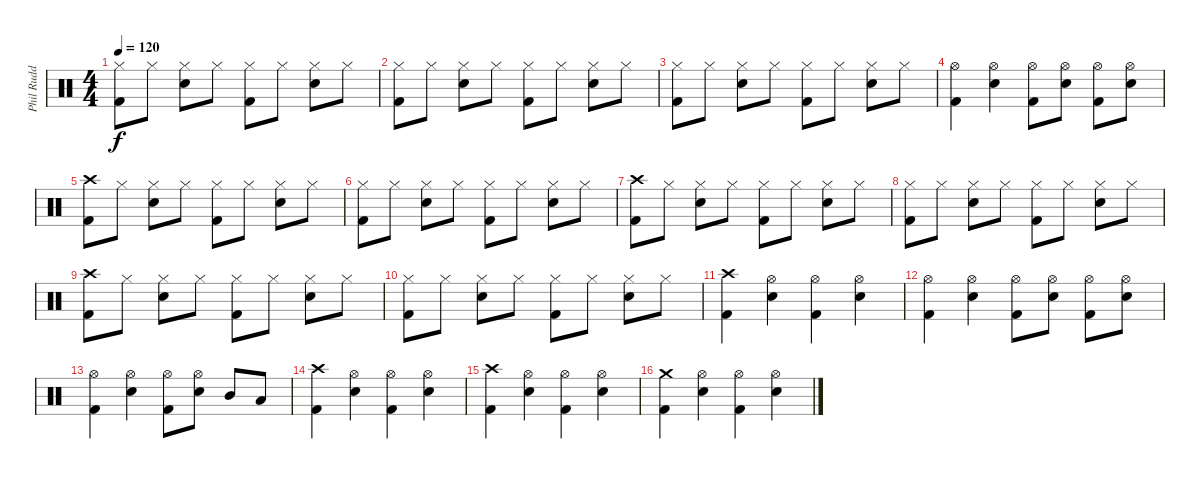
\track ("Phil Rudd (Drum)" "Phil Rudd ") {instrument percussion}
\staff {score}
\articulation defaults
\ts (4 4)
\tempo 120
\clef neutral
\ks c
("Hi-Hat (closed)" "Kick (hit) 2").8{dy f} "Hi-Hat (closed)".8 ("Hi-Hat (closed)" "Snare (hit) 2").8 "Hi-Hat (closed)".8 ("Hi-Hat (closed)" "Kick (hit) 2").8 "Hi-Hat (closed)".8 ("Hi-Hat (closed)" "Snare (hit) 2").8 "Hi-Hat (closed)".8 |
("Hi-Hat (closed)" "Kick (hit) 2").8 "Hi-Hat (closed)".8 ("Hi-Hat (closed)" "Snare (hit) 2").8 "Hi-Hat (closed)".8 ("Hi-Hat (closed)" "Kick (hit) 2").8 "Hi-Hat (closed)".8 ("Hi-Hat (closed)" "Snare (hit) 2").8 "Hi-Hat (closed)".8 |
("Hi-Hat (closed)" "Kick (hit) 2").8 "Hi-Hat (closed)".8 ("Hi-Hat (closed)" "Snare (hit) 2").8 "Hi-Hat (closed)".8 ("Hi-Hat (closed)" "Kick (hit) 2").8 "Hi-Hat (closed)".8 ("Hi-Hat (closed)" "Snare (hit) 2").8 "Hi-Hat (closed)".8 |
("Hi-Hat (open)" "Kick (hit) 2").4 ("Hi-Hat (open)" "Snare (hit) 2").4 ("Hi-Hat (open)" "Kick (hit) 2").8 ("Hi-Hat (open)" "Snare (hit) 2").8 ("Hi-Hat (open)" "Kick (hit) 2").8 ("Hi-Hat (open)" "Snare (hit) 2").8 |
("Crash high (hit)" "Kick (hit) 2").8 "Hi-Hat (closed)".8 ("Hi-Hat (closed)" "Snare (hit) 2").8 "Hi-Hat (closed)".8 ("Hi-Hat (closed)" "Kick (hit) 2").8 "Hi-Hat (closed)".8 ("Hi-Hat (closed)" "Snare (hit) 2").8 "Hi-Hat (closed)".8 |
("Hi-Hat (closed)" "Kick (hit) 2").8 "Hi-Hat (closed)".8 ("Hi-Hat (closed)" "Snare (hit) 2").8 "Hi-Hat (closed)".8 ("Hi-Hat (closed)" "Kick (hit) 2").8 "Hi-Hat (closed)".8 ("Hi-Hat (closed)" "Snare (hit) 2").8 "Hi-Hat (closed)".8 |
("Crash high (hit)" "Kick (hit) 2").8 "Hi-Hat (closed)".8 ("Hi-Hat (closed)" "Snare (hit) 2").8 "Hi-Hat (closed)".8 ("Hi-Hat (closed)" "Kick (hit) 2").8 "Hi-Hat (closed)".8 ("Hi-Hat (closed)" "Snare (hit) 2").8 "Hi-Hat (closed)".8 |
("Hi-Hat (closed)" "Kick (hit) 2").8 "Hi-Hat (closed)".8 ("Hi-Hat (closed)" "Snare (hit) 2").8 "Hi-Hat (closed)".8 ("Hi-Hat (closed)" "Kick (hit) 2").8 "Hi-Hat (closed)".8 ("Hi-Hat (closed)" "Snare (hit) 2").8 "Hi-Hat (closed)".8 |
("Crash high (hit)" "Kick (hit) 2").8 "Hi-Hat (closed)".8 ("Hi-Hat (closed)" "Snare (hit) 2").8 "Hi-Hat (closed)".8 ("Hi-Hat (closed)" "Kick (hit) 2").8 "Hi-Hat (closed)".8 ("Hi-Hat (closed)" "Snare (hit) 2").8 "Hi-Hat (closed)".8 |
("Hi-Hat (closed)" "Kick (hit) 2").8 "Hi-Hat (closed)".8 ("Hi-Hat (closed)" "Snare (hit) 2").8 "Hi-Hat (closed)".8 ("Hi-Hat (closed)" "Kick (hit) 2").8 "Hi-Hat (closed)".8 ("Hi-Hat (closed)" "Snare (hit) 2").8 "Hi-Hat (closed)".8 |
("Crash high (hit)" "Kick (hit) 2").4 ("Hi-Hat (open)" "Snare (hit) 2").4 ("Hi-Hat (open)" "Kick (hit) 2").4 ("Hi-Hat (open)" "Snare (hit) 2").4 |
("Hi-Hat (open)" "Kick (hit) 2").4 ("Hi-Hat (open)" "Snare (hit) 2").4 ("Hi-Hat (open)" "Kick (hit) 2").8 ("Hi-Hat (open)" "Snare (hit) 2").8 ("Hi-Hat (open)" "Kick (hit) 2").8 ("Hi-Hat (open)" "Snare (hit) 2").8 |
("Hi-Hat (open)" "Kick (hit) 2").4 ("Hi-Hat (open)" "Snare (hit) 2").4 ("Hi-Hat (open)" "Kick (hit) 2").8 ("Hi-Hat (open)" "Snare (hit) 2").8 "Mid Tom (hit)".8 "Low Tom (hit)".8 |
("Crash high (hit)" "Kick (hit) 2").4 ("Hi-Hat (open)" "Snare (hit) 2").4 ("Hi-Hat (open)" "Kick (hit) 2").4 ("Hi-Hat (open)" "Snare (hit) 2").4 |
("Crash high (hit)" "Kick (hit) 2").4 ("Hi-Hat (open)" "Snare (hit) 2").4 ("Hi-Hat (open)" "Kick (hit) 2").4 ("Hi-Hat (open)" "Snare (hit) 2").4 |
("Crash medium (hit)" "Kick (hit) 2").4 ("Hi-Hat (open)" "Snare (hit) 2").4 ("Hi-Hat (open)" "Kick (hit) 2").4 ("Hi-Hat (open)" "Snare (hit) 2").4
